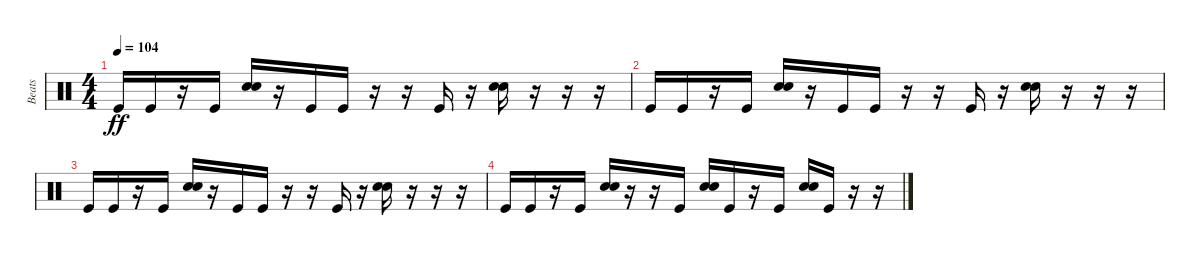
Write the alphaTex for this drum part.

\track ("Beats" "Beats") {instrument percussion}
\staff {score}
\articulation defaults
\ts (4 4)
\tempo 104
\clef neutral
\ks c "Kick (hit)".16{dy ff} "Kick (hit)".16
r.16 "Kick (hit)".16 ("Snare (hit) 2" "Snare (hit) 2").16 r.16 "Kick (hit)".16 "Kick (hit)".16 r.16 r.16 "Kick (hit)".16 r.16 ("Snare (hit) 2" "Snare (hit) 2").16 r.16 r.16 r.16 |
"Kick (hit)".16 "Kick (hit)".16 r.16 "Kick (hit)".16 ("Snare (hit) 2" "Snare (hit) 2").16 r.16 "Kick (hit)".16 "Kick (hit)".16 r.16 r.16 "Kick (hit)".16 r.16 ("Snare (hit) 2" "Snare (hit) 2").16 r.16 r.16 r.16 |
"Kick (hit)".16 "Kick (hit)".16 r.16 "Kick (hit)".16 ("Snare (hit) 2" "Snare (hit) 2").16 r.16 "Kick (hit)".16 "Kick (hit)".16 r.16 r.16 "Kick (hit)".16 r.16 ("Snare (hit) 2" "Snare (hit) 2").16 r.16 r.16 r.16 |
"Kick (hit)".16 "Kick (hit)".16 r.16 "Kick (hit)".16 ("Snare (hit) 2" "Snare (hit) 2").16 r.16 r.16 "Kick (hit)".16 ("Snare (hit) 2" "Snare (hit) 2").16 "Kick (hit)".16 r.16 "Kick (hit)".16 ("Snare (hit) 2" "Snare (hit) 2").16 "Kick (hit)".16 r.16 r.16
